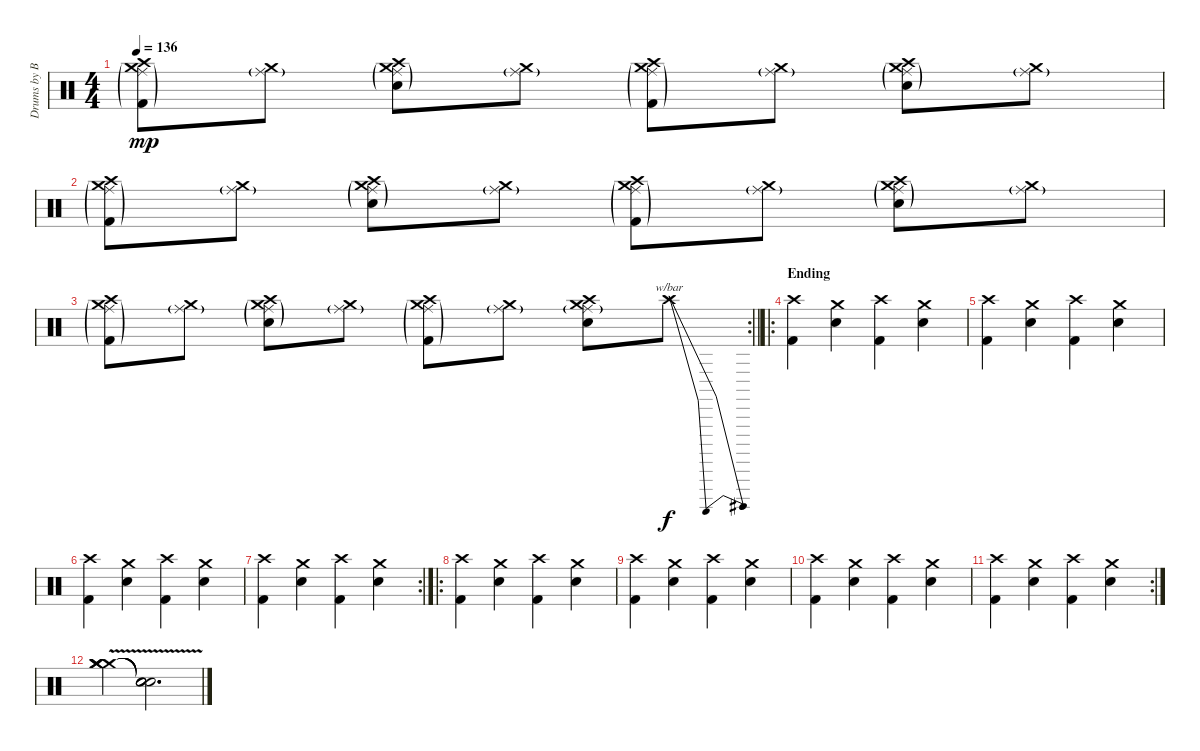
\track ("Drums by Blackgk" "Drums by B") {instrument percussion}
\staff {score}
\articulation defaults
\ts (4 4)
\tempo 136
\clef neutral
\ks c
("Crash medium (hit)"{g} "Ride (middle)"{g} "Crash high (hit)" "Kick (hit) 2"{g}).8{dy mp} ("Crash medium (hit)" "Ride (middle)"{g}).8 ("Crash medium (hit)"{g} "Ride (middle)"{g} "Crash high (hit)" "Snare (hit) 2"{g}).8 ("Crash medium (hit)" "Ride (middle)"{g}).8 ("Crash medium (hit)"{g} "Ride (middle)"{g} "Crash high (hit)" "Kick (hit) 2"{g}).8 ("Crash medium (hit)" "Ride (middle)"{g}).8 ("Crash medium (hit)"{g} "Ride (middle)"{g} "Crash high (hit)" "Snare (hit) 2"{g}).8 ("Crash medium (hit)" "Ride (middle)"{g}).8 |
("Crash medium (hit)"{g} "Ride (middle)"{g} "Crash high (hit)" "Kick (hit) 2"{g}).8 ("Crash medium (hit)" "Ride (middle)"{g}).8 ("Crash medium (hit)"{g} "Ride (middle)"{g} "Crash high (hit)" "Snare (hit) 2"{g}).8 ("Crash medium (hit)" "Ride (middle)"{g}).8 ("Crash medium (hit)"{g} "Ride (middle)"{g} "Crash high (hit)" "Kick (hit) 2"{g}).8 ("Crash medium (hit)" "Ride (middle)"{g}).8 ("Crash medium (hit)"{g} "Ride (middle)"{g} "Crash high (hit)" "Snare (hit) 2"{g}).8 ("Crash medium (hit)" "Ride (middle)"{g}).8 |
\rc 2
\barLineRight lightlight
("Crash medium (hit)"{g} "Ride (middle)"{g} "Crash high (hit)" "Kick (hit) 2"{g}).8 ("Crash medium (hit)" "Ride (middle)"{g}).8 ("Crash medium (hit)"{g} "Ride (middle)"{g} "Crash high (hit)" "Snare (hit) 2"{g}).8 ("Crash medium (hit)" "Ride (middle)"{g}).8 ("Crash medium (hit)"{g} "Ride (middle)"{g} "Crash high (hit)" "Kick (hit) 2"{g}).8 ("Crash medium (hit)" "Ride (middle)"{g}).8 ("Crash medium (hit)" "Ride (middle)"{g} "Crash high (hit)" "Snare (hit) 2").8 "Crash high (hit)"{be (bend 0 0 60 2)}.8{tbe (dip default 0 0 30 -4 60 0) dy f} |
\ro
\section ("" "Ending")
("Crash high (hit)" "Kick (hit) 2").4 ("Crash medium (hit)" "Snare (hit) 2").4 ("Crash high (hit)" "Kick (hit) 2").4 ("Crash medium (hit)" "Snare (hit) 2").4 |
("Crash high (hit)" "Kick (hit) 2").4 ("Crash medium (hit)" "Snare (hit) 2").4 ("Crash high (hit)" "Kick (hit) 2").4 ("Crash medium (hit)" "Snare (hit) 2").4 |
("Crash high (hit)" "Kick (hit) 2").4 ("Crash medium (hit)" "Snare (hit) 2").4 ("Crash high (hit)" "Kick (hit) 2").4 ("Crash medium (hit)" "Snare (hit) 2").4 |
\rc 2
("Crash high (hit)" "Kick (hit) 2").4 ("Crash medium (hit)" "Snare (hit) 2").4 ("Crash high (hit)" "Kick (hit) 2").4 ("Crash medium (hit)" "Snare (hit) 2").4 |
\ro
("Crash high (hit)" "Kick (hit) 2").4 ("Crash medium (hit)" "Snare (hit) 2").4 ("Crash high (hit)" "Kick (hit) 2").4 ("Crash medium (hit)" "Snare (hit) 2").4 |
("Crash high (hit)" "Kick (hit) 2").4 ("Crash medium (hit)" "Snare (hit) 2").4 ("Crash high (hit)" "Kick (hit) 2").4 ("Crash medium (hit)" "Snare (hit) 2").4 |
("Crash high (hit)" "Kick (hit) 2").4 ("Crash medium (hit)" "Snare (hit) 2").4 ("Crash high (hit)" "Kick (hit) 2").4 ("Crash medium (hit)" "Snare (hit) 2").4 |
\rc 2
("Crash high (hit)" "Kick (hit) 2").4 ("Crash medium (hit)" "Snare (hit) 2").4 ("Crash high (hit)" "Kick (hit) 2").4 ("Crash medium (hit)" "Snare (hit) 2").4 |
("Crash medium (hit)" "Crash medium (hit)" "Crash medium (hit)"{v} "Crash medium (hit)").4 ("Snare (hit)"{t} "Snare (hit)"{t} "Snare (hit)"{t} "Snare (hit)"{t}).2{d}
